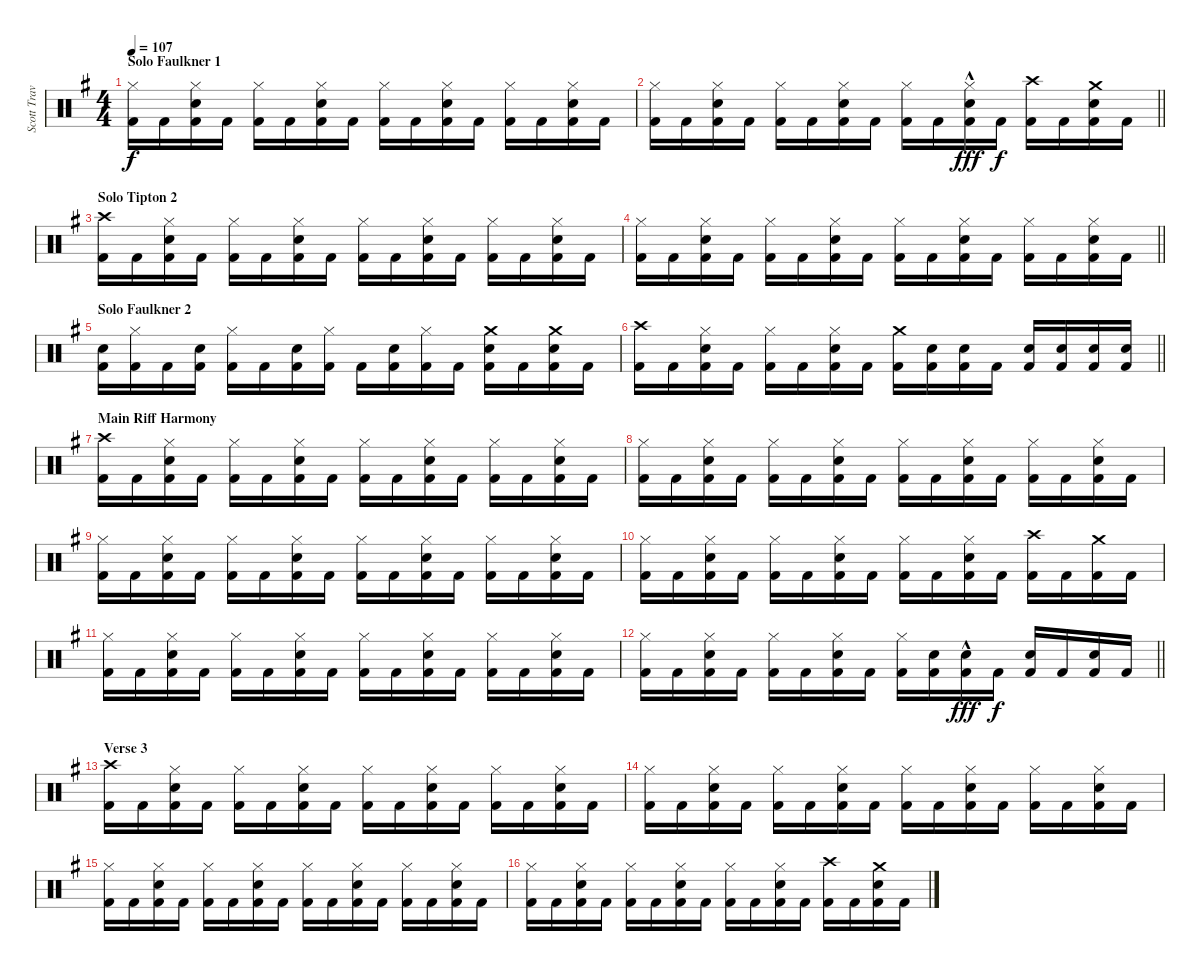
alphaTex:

\track ("Scott Travis" "Scott Trav") {instrument percussion}
\staff {score}
\articulation defaults
\ts (4 4)
\section ("" "Solo Faulkner 1")
\tempo 107
\clef neutral
\ks eminor
("Hi-Hat (closed)" "Kick (hit) 2").16{dy f} "Kick (hit) 2".16 ("Hi-Hat (closed)" "Snare (hit) 2" "Kick (hit) 2").16 "Kick (hit) 2".16 ("Hi-Hat (closed)" "Kick (hit) 2").16 "Kick (hit) 2".16 ("Hi-Hat (closed)" "Snare (hit) 2" "Kick (hit) 2").16 "Kick (hit) 2".16 ("Hi-Hat (closed)" "Kick (hit) 2").16 "Kick (hit) 2".16 ("Hi-Hat (closed)" "Snare (hit) 2" "Kick (hit) 2").16 "Kick (hit) 2".16 ("Hi-Hat (closed)" "Kick (hit) 2").16 "Kick (hit) 2".16 ("Hi-Hat (closed)" "Snare (hit) 2" "Kick (hit) 2").16 "Kick (hit) 2".16 |
\barLineRight lightlight
("Hi-Hat (closed)" "Kick (hit) 2").16 "Kick (hit) 2".16 ("Hi-Hat (closed)" "Snare (hit) 2" "Kick (hit) 2").16 "Kick (hit) 2".16 ("Hi-Hat (closed)" "Kick (hit) 2").16 "Kick (hit) 2".16 ("Hi-Hat (closed)" "Snare (hit) 2" "Kick (hit) 2").16 "Kick (hit) 2".16 ("Hi-Hat (closed)" "Kick (hit) 2").16 "Kick (hit) 2".16 ("Hi-Hat (closed)"{hac} "Snare (hit) 2" "Kick (hit) 2").16{dy fff} "Kick (hit) 2".16{dy f} ("Crash high (hit)" "Kick (hit) 2").16 "Kick (hit) 2".16 ("Crash medium (hit)" "Snare (hit) 2" "Kick (hit) 2").16 "Kick (hit) 2".16 |
\section ("" "Solo Tipton 2")
("Crash high (hit)" "Kick (hit) 2").16 "Kick (hit) 2".16 ("Hi-Hat (closed)" "Snare (hit) 2" "Kick (hit) 2").16 "Kick (hit) 2".16 ("Hi-Hat (closed)" "Kick (hit) 2").16 "Kick (hit) 2".16 ("Hi-Hat (closed)" "Snare (hit) 2" "Kick (hit) 2").16 "Kick (hit) 2".16 ("Hi-Hat (closed)" "Kick (hit) 2").16 "Kick (hit) 2".16 ("Hi-Hat (closed)" "Snare (hit) 2" "Kick (hit) 2").16 "Kick (hit) 2".16 ("Hi-Hat (closed)" "Kick (hit) 2").16 "Kick (hit) 2".16 ("Hi-Hat (closed)" "Snare (hit) 2" "Kick (hit) 2").16 "Kick (hit) 2".16 |
\barLineRight lightlight
("Hi-Hat (closed)" "Kick (hit) 2").16 "Kick (hit) 2".16 ("Hi-Hat (closed)" "Snare (hit) 2" "Kick (hit) 2").16 "Kick (hit) 2".16 ("Hi-Hat (closed)" "Kick (hit) 2").16 "Kick (hit) 2".16 ("Hi-Hat (closed)" "Snare (hit) 2" "Kick (hit) 2").16 "Kick (hit) 2".16 ("Hi-Hat (closed)" "Kick (hit) 2").16 "Kick (hit) 2".16 ("Hi-Hat (closed)" "Snare (hit) 2" "Kick (hit) 2").16 "Kick (hit) 2".16 ("Hi-Hat (closed)" "Kick (hit) 2").16 "Kick (hit) 2".16 ("Hi-Hat (closed)" "Snare (hit) 2" "Kick (hit) 2").16 "Kick (hit) 2".16 |
\section ("" "Solo Faulkner 2")
("Snare (hit) 2" "Kick (hit) 2").16 ("Hi-Hat (closed)" "Kick (hit) 2").16 "Kick (hit) 2".16 ("Snare (hit) 2" "Kick (hit) 2").16 ("Hi-Hat (closed)" "Kick (hit) 2").16 "Kick (hit) 2".16 ("Snare (hit) 2" "Kick (hit) 2").16 ("Hi-Hat (closed)" "Kick (hit) 2").16 "Kick (hit) 2".16 ("Snare (hit) 2" "Kick (hit) 2").16 ("Hi-Hat (closed)" "Kick (hit) 2").16 "Kick (hit) 2".16 ("Crash medium (hit)" "Snare (hit) 2" "Kick (hit) 2").16 "Kick (hit) 2".16 ("Crash medium (hit)" "Snare (hit) 2" "Kick (hit) 2").16 "Kick (hit) 2".16 |
\barLineRight lightlight
("Crash high (hit)" "Kick (hit) 2").16 "Kick (hit) 2".16 ("Hi-Hat (closed)" "Snare (hit) 2" "Kick (hit) 2").16 "Kick (hit) 2".16 ("Hi-Hat (closed)" "Kick (hit) 2").16 "Kick (hit) 2".16 ("Hi-Hat (closed)" "Snare (hit) 2" "Kick (hit) 2").16 "Kick (hit) 2".16 ("Crash medium (hit)" "Kick (hit) 2").16 ("Snare (hit) 2" "Kick (hit) 2").16 ("Snare (hit) 2" "Kick (hit) 2").16 "Kick (hit) 2".16 ("Snare (hit) 2" "Kick (hit) 2").16 ("Snare (hit) 2" "Kick (hit) 2").16 ("Snare (hit) 2" "Kick (hit) 2").16 ("Snare (hit) 2" "Kick (hit) 2").16 |
\section ("" "Main Riff Harmony")
("Crash high (hit)" "Kick (hit) 2").16 "Kick (hit) 2".16 ("Hi-Hat (closed)" "Snare (hit) 2" "Kick (hit) 2").16 "Kick (hit) 2".16 ("Hi-Hat (closed)" "Kick (hit) 2").16 "Kick (hit) 2".16 ("Hi-Hat (closed)" "Snare (hit) 2" "Kick (hit) 2").16 "Kick (hit) 2".16 ("Hi-Hat (closed)" "Kick (hit) 2").16 "Kick (hit) 2".16 ("Hi-Hat (closed)" "Snare (hit) 2" "Kick (hit) 2").16 "Kick (hit) 2".16 ("Hi-Hat (closed)" "Kick (hit) 2").16 "Kick (hit) 2".16 ("Hi-Hat (closed)" "Snare (hit) 2" "Kick (hit) 2").16 "Kick (hit) 2".16 |
("Hi-Hat (closed)" "Kick (hit) 2").16 "Kick (hit) 2".16 ("Hi-Hat (closed)" "Snare (hit) 2" "Kick (hit) 2").16 "Kick (hit) 2".16 ("Hi-Hat (closed)" "Kick (hit) 2").16 "Kick (hit) 2".16 ("Hi-Hat (closed)" "Snare (hit) 2" "Kick (hit) 2").16 "Kick (hit) 2".16 ("Hi-Hat (closed)" "Kick (hit) 2").16 "Kick (hit) 2".16 ("Hi-Hat (closed)" "Snare (hit) 2" "Kick (hit) 2").16 "Kick (hit) 2".16 ("Hi-Hat (closed)" "Kick (hit) 2").16 "Kick (hit) 2".16 ("Hi-Hat (closed)" "Snare (hit) 2" "Kick (hit) 2").16 "Kick (hit) 2".16 |
("Hi-Hat (closed)" "Kick (hit) 2").16 "Kick (hit) 2".16 ("Hi-Hat (closed)" "Snare (hit) 2" "Kick (hit) 2").16 "Kick (hit) 2".16 ("Hi-Hat (closed)" "Kick (hit) 2").16 "Kick (hit) 2".16 ("Hi-Hat (closed)" "Snare (hit) 2" "Kick (hit) 2").16 "Kick (hit) 2".16 ("Hi-Hat (closed)" "Kick (hit) 2").16 "Kick (hit) 2".16 ("Hi-Hat (closed)" "Snare (hit) 2" "Kick (hit) 2").16 "Kick (hit) 2".16 ("Hi-Hat (closed)" "Kick (hit) 2").16 "Kick (hit) 2".16 ("Hi-Hat (closed)" "Snare (hit) 2" "Kick (hit) 2").16 "Kick (hit) 2".16 |
("Hi-Hat (closed)" "Kick (hit) 2").16 "Kick (hit) 2".16 ("Hi-Hat (closed)" "Snare (hit) 2" "Kick (hit) 2").16 "Kick (hit) 2".16 ("Hi-Hat (closed)" "Kick (hit) 2").16 "Kick (hit) 2".16 ("Hi-Hat (closed)" "Snare (hit) 2" "Kick (hit) 2").16 "Kick (hit) 2".16 ("Hi-Hat (closed)" "Kick (hit) 2").16 "Kick (hit) 2".16 ("Hi-Hat (closed)" "Snare (hit) 2" "Kick (hit) 2").16 "Kick (hit) 2".16 ("Crash high (hit)" "Kick (hit) 2").16 "Kick (hit) 2".16 ("Crash medium (hit)" "Kick (hit) 2").16 "Kick (hit) 2".16 |
("Hi-Hat (closed)" "Kick (hit) 2").16 "Kick (hit) 2".16 ("Hi-Hat (closed)" "Snare (hit) 2" "Kick (hit) 2").16 "Kick (hit) 2".16 ("Hi-Hat (closed)" "Kick (hit) 2").16 "Kick (hit) 2".16 ("Hi-Hat (closed)" "Snare (hit) 2" "Kick (hit) 2").16 "Kick (hit) 2".16 ("Hi-Hat (closed)" "Kick (hit) 2").16 "Kick (hit) 2".16 ("Hi-Hat (closed)" "Snare (hit) 2" "Kick (hit) 2").16 "Kick (hit) 2".16 ("Hi-Hat (closed)" "Kick (hit) 2").16 "Kick (hit) 2".16 ("Hi-Hat (closed)" "Snare (hit) 2" "Kick (hit) 2").16 "Kick (hit) 2".16 |
\barLineRight lightlight
("Hi-Hat (closed)" "Kick (hit) 2").16 "Kick (hit) 2".16 ("Hi-Hat (closed)" "Snare (hit) 2" "Kick (hit) 2").16 "Kick (hit) 2".16 ("Hi-Hat (closed)" "Kick (hit) 2").16 "Kick (hit) 2".16 ("Hi-Hat (closed)" "Snare (hit) 2" "Kick (hit) 2").16 "Kick (hit) 2".16 ("Hi-Hat (closed)" "Kick (hit) 2").16 ("Snare (hit) 2" "Kick (hit) 2").16 ("Snare (hit) 2"{hac} "Kick (hit) 2").16{dy fff} "Kick (hit) 2".16{dy f} ("Snare (hit) 2" "Kick (hit) 2").16 "Kick (hit) 2".16 ("Snare (hit) 2" "Kick (hit) 2").16 "Kick (hit) 2".16 |
\section ("" "Verse 3")
("Crash high (hit)" "Kick (hit) 2").16 "Kick (hit) 2".16 ("Hi-Hat (closed)" "Snare (hit) 2" "Kick (hit) 2").16 "Kick (hit) 2".16 ("Hi-Hat (closed)" "Kick (hit) 2").16 "Kick (hit) 2".16 ("Hi-Hat (closed)" "Snare (hit) 2" "Kick (hit) 2").16 "Kick (hit) 2".16 ("Hi-Hat (closed)" "Kick (hit) 2").16 "Kick (hit) 2".16 ("Hi-Hat (closed)" "Snare (hit) 2" "Kick (hit) 2").16 "Kick (hit) 2".16 ("Hi-Hat (closed)" "Kick (hit) 2").16 "Kick (hit) 2".16 ("Hi-Hat (closed)" "Snare (hit) 2" "Kick (hit) 2").16 "Kick (hit) 2".16 |
("Hi-Hat (closed)" "Kick (hit) 2").16 "Kick (hit) 2".16 ("Hi-Hat (closed)" "Snare (hit) 2" "Kick (hit) 2").16 "Kick (hit) 2".16 ("Hi-Hat (closed)" "Kick (hit) 2").16 "Kick (hit) 2".16 ("Hi-Hat (closed)" "Snare (hit) 2" "Kick (hit) 2").16 "Kick (hit) 2".16 ("Hi-Hat (closed)" "Kick (hit) 2").16 "Kick (hit) 2".16 ("Hi-Hat (closed)" "Snare (hit) 2" "Kick (hit) 2").16 "Kick (hit) 2".16 ("Hi-Hat (closed)" "Kick (hit) 2").16 "Kick (hit) 2".16 ("Hi-Hat (closed)" "Snare (hit) 2" "Kick (hit) 2").16 "Kick (hit) 2".16 |
("Hi-Hat (closed)" "Kick (hit) 2").16 "Kick (hit) 2".16 ("Hi-Hat (closed)" "Snare (hit) 2" "Kick (hit) 2").16 "Kick (hit) 2".16 ("Hi-Hat (closed)" "Kick (hit) 2").16 "Kick (hit) 2".16 ("Hi-Hat (closed)" "Snare (hit) 2" "Kick (hit) 2").16 "Kick (hit) 2".16 ("Hi-Hat (closed)" "Kick (hit) 2").16 "Kick (hit) 2".16 ("Hi-Hat (closed)" "Snare (hit) 2" "Kick (hit) 2").16 "Kick (hit) 2".16 ("Hi-Hat (closed)" "Kick (hit) 2").16 "Kick (hit) 2".16 ("Hi-Hat (closed)" "Snare (hit) 2" "Kick (hit) 2").16 "Kick (hit) 2".16 |
("Hi-Hat (closed)" "Kick (hit) 2").16 "Kick (hit) 2".16 ("Hi-Hat (closed)" "Snare (hit) 2" "Kick (hit) 2").16 "Kick (hit) 2".16 ("Hi-Hat (closed)" "Kick (hit) 2").16 "Kick (hit) 2".16 ("Hi-Hat (closed)" "Snare (hit) 2" "Kick (hit) 2").16 "Kick (hit) 2".16 ("Hi-Hat (closed)" "Kick (hit) 2").16 "Kick (hit) 2".16 ("Hi-Hat (closed)" "Snare (hit) 2" "Kick (hit) 2").16 "Kick (hit) 2".16 ("Crash high (hit)" "Kick (hit) 2").16 "Kick (hit) 2".16 ("Crash medium (hit)" "Snare (hit) 2" "Kick (hit) 2").16 "Kick (hit) 2".16
